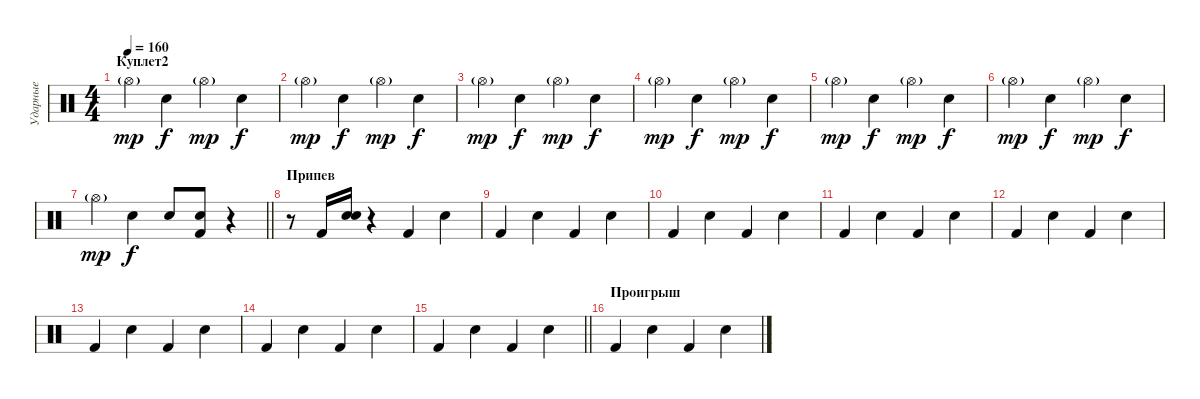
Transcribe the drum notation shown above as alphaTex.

\track ("Ударные" "Ударные") {instrument percussion}
\staff {score}
\articulation defaults
\ts (4 4)
\section ("" "Куплет2")
\tempo 160
\clef neutral
\ks c "Hi-Hat (open)"{g}.4{dy mp} "Electric Snare (hit)".4{dy f} "Hi-Hat (open)"{g}.4{dy mp} "Electric Snare (hit)".4{dy f}
|
"Hi-Hat (open)"{g}.4{dy mp} "Electric Snare (hit)".4{dy f} "Hi-Hat (open)"{g}.4{dy mp} "Electric Snare (hit)".4{dy f} |
"Hi-Hat (open)"{g}.4{dy mp} "Electric Snare (hit)".4{dy f} "Hi-Hat (open)"{g}.4{dy mp} "Electric Snare (hit)".4{dy f} |
"Hi-Hat (open)"{g}.4{dy mp} "Electric Snare (hit)".4{dy f} "Hi-Hat (open)"{g}.4{dy mp} "Electric Snare (hit)".4{dy f} |
"Hi-Hat (open)"{g}.4{dy mp} "Electric Snare (hit)".4{dy f} "Hi-Hat (open)"{g}.4{dy mp} "Electric Snare (hit)".4{dy f} |
"Hi-Hat (open)"{g}.4{dy mp} "Electric Snare (hit)".4{dy f} "Hi-Hat (open)"{g}.4{dy mp} "Electric Snare (hit)".4{dy f} |
\barLineRight lightlight "Hi-Hat (open)"{g}.4{dy mp} "Electric Snare (hit)".4{dy f} "Electric Snare (hit)".8
("Electric Snare (hit)" "Kick (hit) 2").8 r.4 |
\section ("" "Припев")
r.8 "Kick (hit) 2".16 ("Electric Snare (hit)" "Snare (hit) 2").16 r.4 "Kick (hit) 2".4 "Snare (hit) 2".4 |
"Kick (hit) 2".4 "Snare (hit) 2".4 "Kick (hit) 2".4 "Snare (hit) 2".4 |
"Kick (hit) 2".4 "Snare (hit) 2".4 "Kick (hit) 2".4 "Snare (hit) 2".4 |
"Kick (hit) 2".4 "Snare (hit) 2".4 "Kick (hit) 2".4 "Snare (hit) 2".4 |
"Kick (hit) 2".4 "Snare (hit) 2".4 "Kick (hit) 2".4 "Snare (hit) 2".4 |
"Kick (hit) 2".4 "Snare (hit) 2".4 "Kick (hit) 2".4 "Snare (hit) 2".4 |
"Kick (hit) 2".4 "Snare (hit) 2".4 "Kick (hit) 2".4 "Snare (hit) 2".4 |
\barLineRight lightlight "Kick (hit) 2".4 "Snare (hit) 2".4 "Kick (hit) 2".4 "Snare (hit) 2".4
|
\section ("" "Проигрыш")
"Kick (hit) 2".4 "Snare (hit) 2".4 "Kick (hit) 2".4 "Snare (hit) 2".4
